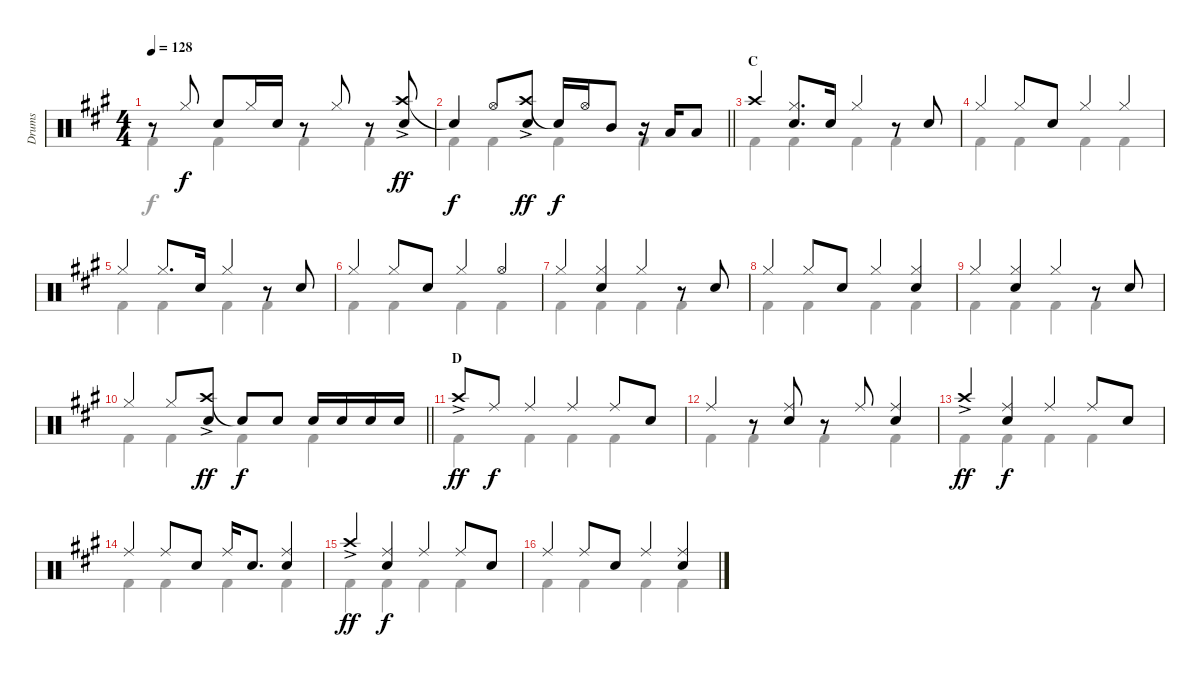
\track ("Drums" "Drums") {instrument percussion}
\staff {score}
\articulation defaults
\voice
\ts (4 4)
\tempo 128
\clef neutral
\ks a
r.8{dy f} "Hi-Hat (closed)".8 "Snare (hit) 2".8 "Hi-Hat (closed)".16 "Snare (hit) 2".16 r.8 "Hi-Hat (closed)".8 r.8 ("Crash high (hit)"{ac} "Snare (hit) 2").8{dy ff} |
\barLineRight lightlight "Snare (hit)"{t}.4{dy f} "Hi-Hat (open)".8
("Crash high (hit)"{ac} "Snare (hit) 2").8{dy ff} "Snare (hit)"{t}.16{dy f} "Hi-Hat (open)".16 "Mid Tom (hit)".8 r.16 "Low Tom (hit)".16 "Low Tom (hit)".8 |
\section ("" "C")
"Crash high (hit)".4 ("Hi-Hat (closed)" "Snare (hit) 2").8{d} "Snare (hit) 2".16 "Hi-Hat (closed)".4 r.8 "Snare (hit) 2".8 |
"Hi-Hat (closed)".4 "Hi-Hat (closed)".8 "Snare (hit) 2".8 "Hi-Hat (closed)".4 "Hi-Hat (closed)".4 |
"Hi-Hat (closed)".4 "Hi-Hat (closed)".8{d} "Snare (hit) 2".16 "Hi-Hat (closed)".4 r.8 "Snare (hit) 2".8 |
"Hi-Hat (closed)".4 "Hi-Hat (closed)".8 "Snare (hit) 2".8 "Hi-Hat (closed)".4 "Hi-Hat (open)".4 |
"Hi-Hat (closed)".4 ("Hi-Hat (closed)" "Snare (hit) 2").4 "Hi-Hat (closed)".4 r.8 "Snare (hit) 2".8 |
"Hi-Hat (closed)".4 "Hi-Hat (closed)".8 "Snare (hit) 2".8 "Hi-Hat (closed)".4 ("Hi-Hat (closed)" "Snare (hit) 2").4 |
"Hi-Hat (closed)".4 ("Hi-Hat (closed)" "Snare (hit) 2").4 "Hi-Hat (closed)".4 r.8 "Snare (hit) 2".8 |
\barLineRight lightlight "Hi-Hat (closed)".4 "Hi-Hat (closed)".8
("Crash high (hit)"{ac} "Snare (hit) 2").8{dy ff} "Snare (hit)"{t}.8{dy f} "Snare (hit) 2".8 "Snare (hit) 2".16 "Snare (hit) 2".16 "Snare (hit) 2".16 "Snare (hit) 2".16 |
\section ("" "D")
"Crash high (hit)"{ac}.8{dy ff} "Ride (middle)".8{dy f} "Ride (middle)".4 "Ride (middle)".4 "Ride (middle)".8 "Snare (hit) 2".8 |
"Ride (middle)".4 r.8 ("Ride (middle)" "Snare (hit) 2").8 r.8 "Ride (middle)".8 ("Ride (middle)" "Snare (hit) 2").4 |
"Crash high (hit)"{ac}.4{dy ff} ("Ride (middle)" "Snare (hit) 2").4{dy f} "Ride (middle)".4 "Ride (middle)".8 "Snare (hit) 2".8 |
"Ride (middle)".4 "Ride (middle)".8 "Snare (hit) 2".8 "Ride (middle)".16 "Snare (hit) 2".8{d} ("Ride (middle)" "Snare (hit) 2").4 |
"Crash high (hit)"{ac}.4{dy ff} ("Ride (middle)" "Snare (hit) 2").4{dy f} "Ride (middle)".4 "Ride (middle)".8 "Snare (hit) 2".8 |
"Ride (middle)".4 "Ride (middle)".8 "Snare (hit) 2".8 "Ride (middle)".4 ("Ride (middle)" "Snare (hit) 2").4
\voice
\clef neutral
\ottava regular
\simile none
\ks a "Kick (hit) 2".4{dy f} "Kick (hit) 2".4 "Kick (hit) 2".4 "Kick (hit) 2".4
|
\barLineRight lightlight "Kick (hit) 2".4 "Kick (hit) 2".4 "Kick (hit) 2".4 "Kick (hit) 2".4
|
"Kick (hit) 2".4 "Kick (hit) 2".4 "Kick (hit) 2".4 "Kick (hit) 2".4 |
"Kick (hit) 2".4 "Kick (hit) 2".4 "Kick (hit) 2".4 "Kick (hit) 2".4 |
"Kick (hit) 2".4 "Kick (hit) 2".4 "Kick (hit) 2".4 "Kick (hit) 2".4 |
"Kick (hit) 2".4 "Kick (hit) 2".4 "Kick (hit) 2".4 "Kick (hit) 2".4 |
"Kick (hit) 2".4 "Kick (hit) 2".4 "Kick (hit) 2".4 "Kick (hit) 2".4 |
"Kick (hit) 2".4 "Kick (hit) 2".4 "Kick (hit) 2".4 "Kick (hit) 2".4 |
"Kick (hit) 2".4 "Kick (hit) 2".4 "Kick (hit) 2".4 "Kick (hit) 2".4 |
\barLineRight lightlight "Kick (hit) 2".4 "Kick (hit) 2".4 "Kick (hit) 2".4 "Kick (hit) 2".4
|
"Kick (hit) 2".4 "Kick (hit) 2".4 "Kick (hit) 2".4 "Kick (hit) 2".4 |
"Kick (hit) 2".4 "Kick (hit) 2".4 "Kick (hit) 2".4 "Kick (hit) 2".4 |
"Kick (hit) 2".4 "Kick (hit) 2".4 "Kick (hit) 2".4 "Kick (hit) 2".4 |
"Kick (hit) 2".4 "Kick (hit) 2".4 "Kick (hit) 2".4 "Kick (hit) 2".4 |
"Kick (hit) 2".4 "Kick (hit) 2".4 "Kick (hit) 2".4 "Kick (hit) 2".4 |
"Kick (hit) 2".4 "Kick (hit) 2".4 "Kick (hit) 2".4 "Kick (hit) 2".4
